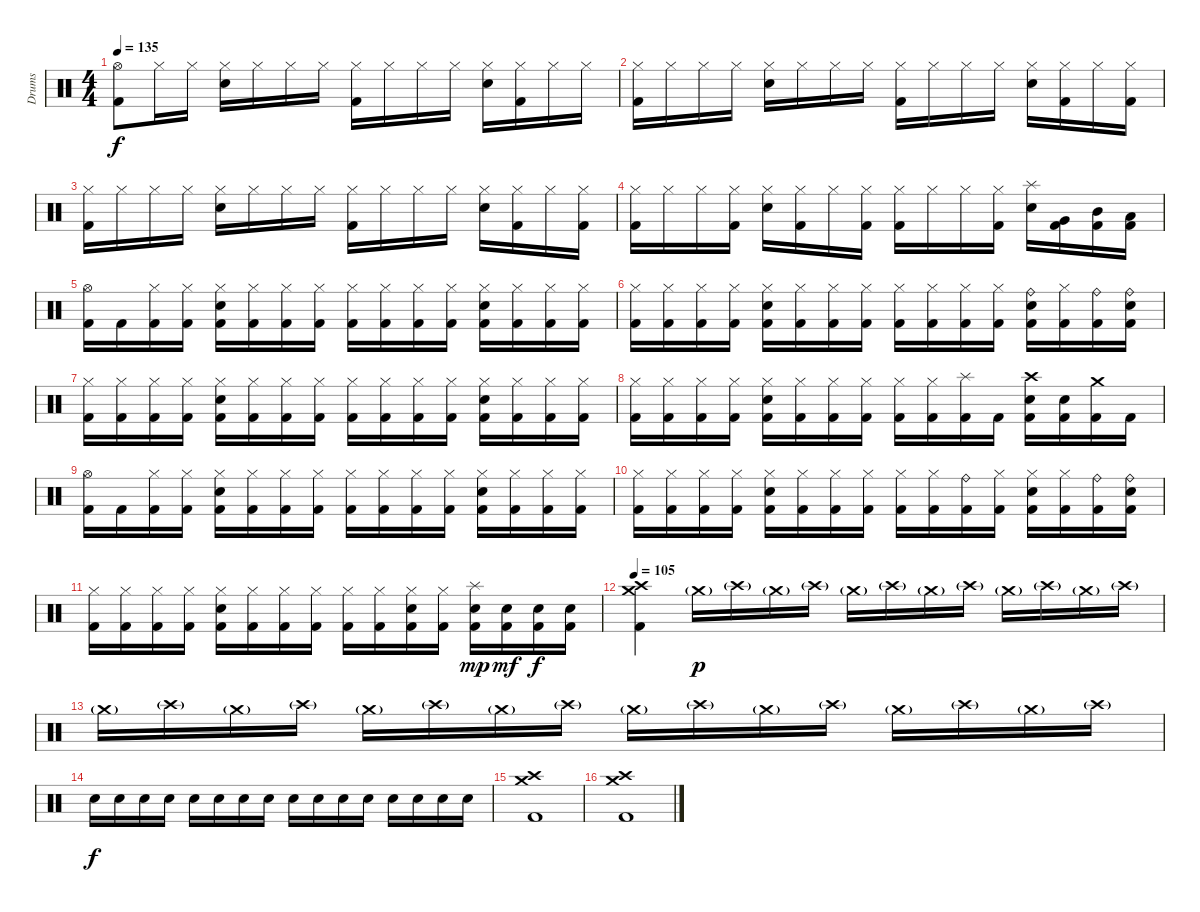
\track ("Drums" "Drums") {instrument percussion}
\staff {score}
\articulation defaults
\ts (4 4)
\tempo 135
\clef neutral
\ks c
("Hi-Hat (open)" "Kick (hit) 2").8{dy f} "Hi-Hat (closed)".16 "Hi-Hat (closed)".16 ("Hi-Hat (closed)" "Electric Snare (hit)").16 "Hi-Hat (closed)".16 "Hi-Hat (closed)".16 "Hi-Hat (closed)".16 ("Hi-Hat (closed)" "Kick (hit) 2").16 "Hi-Hat (closed)".16 "Hi-Hat (closed)".16 "Hi-Hat (closed)".16 ("Hi-Hat (closed)" "Electric Snare (hit)").16 ("Hi-Hat (closed)" "Kick (hit) 2").16 "Hi-Hat (closed)".16 "Hi-Hat (closed)".16 |
("Hi-Hat (closed)" "Kick (hit) 2").16 "Hi-Hat (closed)".16 "Hi-Hat (closed)".16 "Hi-Hat (closed)".16 ("Hi-Hat (closed)" "Electric Snare (hit)").16 "Hi-Hat (closed)".16 "Hi-Hat (closed)".16 "Hi-Hat (closed)".16 ("Hi-Hat (closed)" "Kick (hit) 2").16 "Hi-Hat (closed)".16 "Hi-Hat (closed)".16 "Hi-Hat (closed)".16 ("Hi-Hat (closed)" "Electric Snare (hit)").16 ("Hi-Hat (closed)" "Kick (hit) 2").16 "Hi-Hat (closed)".16 ("Hi-Hat (closed)" "Kick (hit) 2").16 |
("Hi-Hat (closed)" "Kick (hit) 2").16 "Hi-Hat (closed)".16 "Hi-Hat (closed)".16 "Hi-Hat (closed)".16 ("Hi-Hat (closed)" "Electric Snare (hit)").16 "Hi-Hat (closed)".16 "Hi-Hat (closed)".16 "Hi-Hat (closed)".16 ("Hi-Hat (closed)" "Kick (hit) 2").16 "Hi-Hat (closed)".16 "Hi-Hat (closed)".16 "Hi-Hat (closed)".16 ("Hi-Hat (closed)" "Electric Snare (hit)").16 ("Hi-Hat (closed)" "Kick (hit) 2").16 "Hi-Hat (closed)".16 ("Hi-Hat (closed)" "Kick (hit) 2").16 |
("Hi-Hat (closed)" "Kick (hit) 2").16 "Hi-Hat (closed)".16 "Hi-Hat (closed)".16 ("Hi-Hat (closed)" "Kick (hit) 2").16 ("Hi-Hat (closed)" "Electric Snare (hit)").16 ("Hi-Hat (closed)" "Kick (hit) 2").16 "Hi-Hat (closed)".16 ("Hi-Hat (closed)" "Kick (hit) 2").16 ("Hi-Hat (closed)" "Kick (hit) 2").16 "Hi-Hat (closed)".16 "Hi-Hat (closed)".16 ("Hi-Hat (closed)" "Kick (hit) 2").16 ("Splash (hit)" "Electric Snare (hit)").16 ("Very Low Tom (hit)" "Kick (hit) 2").16 ("Mid Tom (hit)" "Kick (hit) 2").16 ("Low Tom (hit)" "Kick (hit) 2").16 |
("Hi-Hat (open)" "Kick (hit) 2").16 "Kick (hit) 2".16 ("Hi-Hat (closed)" "Kick (hit) 2").16 ("Hi-Hat (closed)" "Kick (hit) 2").16 ("Hi-Hat (closed)" "Electric Snare (hit)" "Kick (hit) 2").16 ("Hi-Hat (closed)" "Kick (hit) 2").16 ("Hi-Hat (closed)" "Kick (hit) 2").16 ("Hi-Hat (closed)" "Kick (hit) 2").16 ("Hi-Hat (closed)" "Kick (hit) 2").16 ("Hi-Hat (closed)" "Kick (hit) 2").16 ("Hi-Hat (closed)" "Kick (hit) 2").16 ("Hi-Hat (closed)" "Kick (hit) 2").16 ("Hi-Hat (closed)" "Electric Snare (hit)" "Kick (hit) 2").16 ("Hi-Hat (closed)" "Kick (hit) 2").16 ("Hi-Hat (closed)" "Kick (hit) 2").16 ("Hi-Hat (closed)" "Kick (hit) 2").16 |
("Hi-Hat (closed)" "Kick (hit) 2").16 ("Hi-Hat (closed)" "Kick (hit) 2").16 ("Hi-Hat (closed)" "Kick (hit) 2").16 ("Hi-Hat (closed)" "Kick (hit) 2").16 ("Hi-Hat (closed)" "Electric Snare (hit)" "Kick (hit) 2").16 ("Hi-Hat (closed)" "Kick (hit) 2").16 ("Hi-Hat (closed)" "Kick (hit) 2").16 ("Hi-Hat (closed)" "Kick (hit) 2").16 ("Hi-Hat (closed)" "Kick (hit) 2").16 ("Hi-Hat (closed)" "Kick (hit) 2").16 ("Hi-Hat (closed)" "Kick (hit) 2").16 ("Hi-Hat (closed)" "Kick (hit) 2").16 ("Ride (bell)" "Electric Snare (hit)" "Kick (hit) 2").16 ("Hi-Hat (closed)" "Kick (hit) 2").16 ("Ride (bell)" "Kick (hit) 2").16 ("Ride (bell)" "Electric Snare (hit)" "Kick (hit) 2").16 |
("Hi-Hat (closed)" "Kick (hit) 2").16 ("Hi-Hat (closed)" "Kick (hit) 2").16 ("Hi-Hat (closed)" "Kick (hit) 2").16 ("Hi-Hat (closed)" "Kick (hit) 2").16 ("Hi-Hat (closed)" "Electric Snare (hit)" "Kick (hit) 2").16 ("Hi-Hat (closed)" "Kick (hit) 2").16 ("Hi-Hat (closed)" "Kick (hit) 2").16 ("Hi-Hat (closed)" "Kick (hit) 2").16 ("Hi-Hat (closed)" "Kick (hit) 2").16 ("Hi-Hat (closed)" "Kick (hit) 2").16 ("Hi-Hat (closed)" "Kick (hit) 2").16 ("Hi-Hat (closed)" "Kick (hit) 2").16 ("Hi-Hat (closed)" "Electric Snare (hit)" "Kick (hit) 2").16 ("Hi-Hat (closed)" "Kick (hit) 2").16 ("Hi-Hat (closed)" "Kick (hit) 2").16 ("Hi-Hat (closed)" "Kick (hit) 2").16 |
("Hi-Hat (closed)" "Kick (hit) 2").16 ("Hi-Hat (closed)" "Kick (hit) 2").16 ("Hi-Hat (closed)" "Kick (hit) 2").16 ("Hi-Hat (closed)" "Kick (hit) 2").16 ("Hi-Hat (closed)" "Electric Snare (hit)" "Kick (hit) 2").16 ("Hi-Hat (closed)" "Kick (hit) 2").16 ("Hi-Hat (closed)" "Kick (hit) 2").16 ("Hi-Hat (closed)" "Kick (hit) 2").16 ("Hi-Hat (closed)" "Kick (hit) 2").16 ("Hi-Hat (closed)" "Kick (hit) 2").16 ("Splash (hit)" "Kick (hit) 2").16 "Kick (hit) 2".16 ("Crash high (hit)" "Electric Snare (hit)" "Kick (hit) 2").16 ("Electric Snare (hit)" "Kick (hit) 2").16 ("Crash medium (hit)" "Kick (hit) 2").16 "Kick (hit) 2".16 |
("Hi-Hat (open)" "Kick (hit) 2").16 "Kick (hit) 2".16 ("Hi-Hat (closed)" "Kick (hit) 2").16 ("Hi-Hat (closed)" "Kick (hit) 2").16 ("Hi-Hat (closed)" "Electric Snare (hit)" "Kick (hit) 2").16 ("Hi-Hat (closed)" "Kick (hit) 2").16 ("Hi-Hat (closed)" "Kick (hit) 2").16 ("Hi-Hat (closed)" "Kick (hit) 2").16 ("Hi-Hat (closed)" "Kick (hit) 2").16 ("Hi-Hat (closed)" "Kick (hit) 2").16 ("Hi-Hat (closed)" "Kick (hit) 2").16 ("Hi-Hat (closed)" "Kick (hit) 2").16 ("Hi-Hat (closed)" "Electric Snare (hit)" "Kick (hit) 2").16 ("Hi-Hat (closed)" "Kick (hit) 2").16 ("Hi-Hat (closed)" "Kick (hit) 2").16 ("Hi-Hat (closed)" "Kick (hit) 2").16 |
("Hi-Hat (closed)" "Kick (hit) 2").16 ("Hi-Hat (closed)" "Kick (hit) 2").16 ("Hi-Hat (closed)" "Kick (hit) 2").16 ("Hi-Hat (closed)" "Kick (hit) 2").16 ("Hi-Hat (closed)" "Electric Snare (hit)" "Kick (hit) 2").16 ("Hi-Hat (closed)" "Kick (hit) 2").16 ("Hi-Hat (closed)" "Kick (hit) 2").16 ("Hi-Hat (closed)" "Kick (hit) 2").16 ("Hi-Hat (closed)" "Kick (hit) 2").16 ("Hi-Hat (closed)" "Kick (hit) 2").16 ("Ride (bell)" "Kick (hit) 2").16 ("Hi-Hat (closed)" "Kick (hit) 2").16 ("Hi-Hat (closed)" "Electric Snare (hit)" "Kick (hit) 2").16 ("Hi-Hat (closed)" "Kick (hit) 2").16 ("Ride (bell)" "Kick (hit) 2").16 ("Ride (bell)" "Electric Snare (hit)" "Kick (hit) 2").16 |
("Hi-Hat (closed)" "Kick (hit) 2").16 ("Hi-Hat (closed)" "Kick (hit) 2").16 ("Hi-Hat (closed)" "Kick (hit) 2").16 ("Hi-Hat (closed)" "Kick (hit) 2").16 ("Hi-Hat (closed)" "Electric Snare (hit)" "Kick (hit) 2").16 ("Hi-Hat (closed)" "Kick (hit) 2").16 ("Hi-Hat (closed)" "Kick (hit) 2").16 ("Hi-Hat (closed)" "Kick (hit) 2").16 ("Hi-Hat (closed)" "Kick (hit) 2").16 ("Hi-Hat (closed)" "Kick (hit) 2").16 ("Hi-Hat (closed)" "Electric Snare (hit)" "Kick (hit) 2").16 ("Hi-Hat (closed)" "Kick (hit) 2").16 ("Splash (hit)" "Electric Snare (hit)" "Kick (hit) 2").16{dy mp} ("Electric Snare (hit)" "Kick (hit) 2").16{dy mf} ("Electric Snare (hit)" "Kick (hit) 2").16{dy f} ("Electric Snare (hit)" "Kick (hit) 2").16 |
\tempo 105
("Crash medium (hit)" "Crash high (hit)" "Kick (hit) 2").4 "Crash medium (hit)"{g}.16{dy p} "Crash high (hit)"{g}.16 "Crash medium (hit)"{g}.16 "Crash high (hit)"{g}.16 "Crash medium (hit)"{g}.16 "Crash high (hit)"{g}.16 "Crash medium (hit)"{g}.16 "Crash high (hit)"{g}.16 "Crash medium (hit)"{g}.16 "Crash high (hit)"{g}.16 "Crash medium (hit)"{g}.16 "Crash high (hit)"{g}.16 |
"Crash medium (hit)"{g}.16 "Crash high (hit)"{g}.16 "Crash medium (hit)"{g}.16 "Crash high (hit)"{g}.16 "Crash medium (hit)"{g}.16 "Crash high (hit)"{g}.16 "Crash medium (hit)"{g}.16 "Crash high (hit)"{g}.16 "Crash medium (hit)"{g}.16 "Crash high (hit)"{g}.16 "Crash medium (hit)"{g}.16 "Crash high (hit)"{g}.16 "Crash medium (hit)"{g}.16 "Crash high (hit)"{g}.16 "Crash medium (hit)"{g}.16 "Crash high (hit)"{g}.16 |
"Electric Snare (hit)".16{dy f} "Electric Snare (hit)".16 "Electric Snare (hit)".16 "Electric Snare (hit)".16 "Electric Snare (hit)".16 "Electric Snare (hit)".16 "Electric Snare (hit)".16 "Electric Snare (hit)".16 "Electric Snare (hit)".16 "Electric Snare (hit)".16 "Electric Snare (hit)".16 "Electric Snare (hit)".16 "Electric Snare (hit)".16 "Electric Snare (hit)".16 "Electric Snare (hit)".16 "Electric Snare (hit)".16 |
("Crash medium (hit)" "Crash high (hit)" "Kick (hit) 2").1 |
("Crash medium (hit)" "Crash high (hit)" "Kick (hit) 2").1
